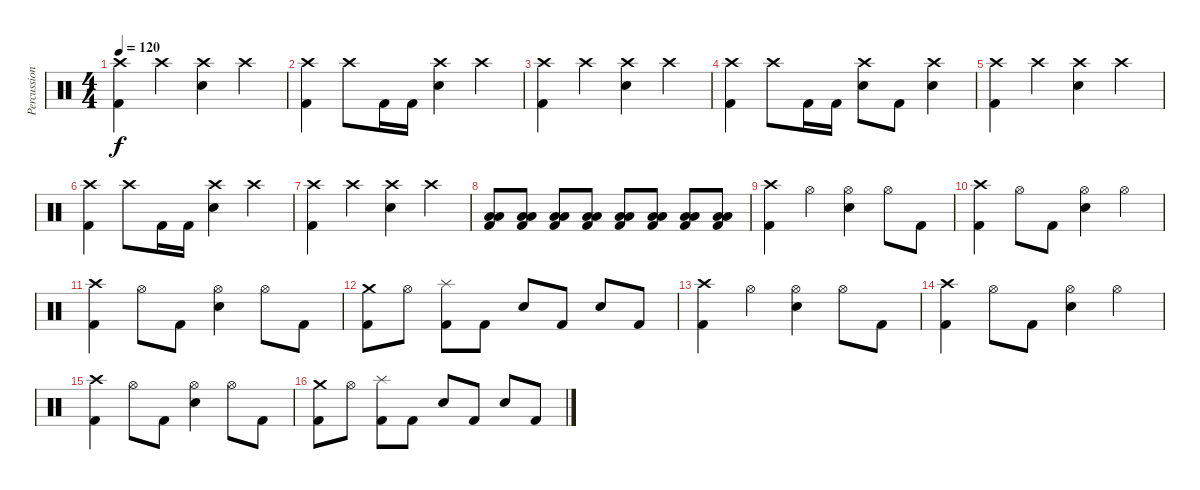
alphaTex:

\track ("Percussions" "Percussion") {instrument percussion}
\staff {score}
\articulation defaults
\ts (4 4)
\tempo 120
\clef neutral
\ks c
("Crash high (hit)" "Kick (hit) 2").4{dy f} "Crash high (hit)".4 ("Crash high (hit)" "Electric Snare (hit)").4 "Crash high (hit)".4 |
("Crash high (hit)" "Kick (hit) 2").4 "Crash high (hit)".8 "Kick (hit) 2".16 "Kick (hit) 2".16 ("Crash high (hit)" "Electric Snare (hit)").4 "Crash high (hit)".4 |
("Crash high (hit)" "Kick (hit) 2").4 "Crash high (hit)".4 ("Crash high (hit)" "Electric Snare (hit)").4 "Crash high (hit)".4 |
("Crash high (hit)" "Kick (hit) 2").4 "Crash high (hit)".8 "Kick (hit) 2".16 "Kick (hit) 2".16 ("Crash high (hit)" "Electric Snare (hit)").8 "Kick (hit) 2".8 ("Crash high (hit)" "Electric Snare (hit)").4 |
("Crash high (hit)" "Kick (hit) 2").4 "Crash high (hit)".4 ("Crash high (hit)" "Electric Snare (hit)").4 "Crash high (hit)".4 |
("Crash high (hit)" "Kick (hit) 2").4 "Crash high (hit)".8 "Kick (hit) 2".16 "Kick (hit) 2".16 ("Crash high (hit)" "Electric Snare (hit)").4 "Crash high (hit)".4 |
("Crash high (hit)" "Kick (hit) 2").4 "Crash high (hit)".4 ("Crash high (hit)" "Electric Snare (hit)").4 "Crash high (hit)".4 |
("Low Tom (hit)" "Low Tom (hit)" "Kick (hit) 2").8 ("Low Tom (hit)" "Low Tom (hit)" "Kick (hit) 2").8 ("Low Tom (hit)" "Low Tom (hit)" "Kick (hit) 2").8 ("Low Tom (hit)" "Low Tom (hit)" "Kick (hit) 2").8 ("Low Tom (hit)" "Low Tom (hit)" "Kick (hit) 2").8 ("Low Tom (hit)" "Low Tom (hit)" "Kick (hit) 2").8 ("Low Tom (hit)" "Low Tom (hit)" "Kick (hit) 2").8 ("Low Tom (hit)" "Low Tom (hit)" "Kick (hit) 2").8 |
("Crash high (hit)" "Kick (hit) 2").4 "Hi-Hat (open)".4 ("Hi-Hat (open)" "Electric Snare (hit)").4 "Hi-Hat (open)".8 "Kick (hit) 2".8 |
("Crash high (hit)" "Kick (hit) 2").4 "Hi-Hat (open)".8 "Kick (hit) 2".8 ("Hi-Hat (open)" "Electric Snare (hit)").4 "Hi-Hat (open)".4 |
("Crash high (hit)" "Kick (hit) 2").4 "Hi-Hat (open)".8 "Kick (hit) 2".8 ("Hi-Hat (open)" "Electric Snare (hit)").4 "Hi-Hat (open)".8 "Kick (hit) 2".8 |
("Crash medium (hit)" "Kick (hit) 2").8 "Hi-Hat (open)".8 ("Splash (hit)" "Kick (hit) 2").8 "Kick (hit) 2".8 "Electric Snare (hit)".8 "Kick (hit) 2".8 "Electric Snare (hit)".8 "Kick (hit) 2".8 |
("Crash high (hit)" "Kick (hit) 2").4 "Hi-Hat (open)".4 ("Hi-Hat (open)" "Electric Snare (hit)").4 "Hi-Hat (open)".8 "Kick (hit) 2".8 |
("Crash high (hit)" "Kick (hit) 2").4 "Hi-Hat (open)".8 "Kick (hit) 2".8 ("Hi-Hat (open)" "Electric Snare (hit)").4 "Hi-Hat (open)".4 |
("Crash high (hit)" "Kick (hit) 2").4 "Hi-Hat (open)".8 "Kick (hit) 2".8 ("Hi-Hat (open)" "Electric Snare (hit)").4 "Hi-Hat (open)".8 "Kick (hit) 2".8 |
("Crash medium (hit)" "Kick (hit) 2").8 "Hi-Hat (open)".8 ("Splash (hit)" "Kick (hit) 2").8 "Kick (hit) 2".8 "Electric Snare (hit)".8 "Kick (hit) 2".8 "Electric Snare (hit)".8 "Kick (hit) 2".8
